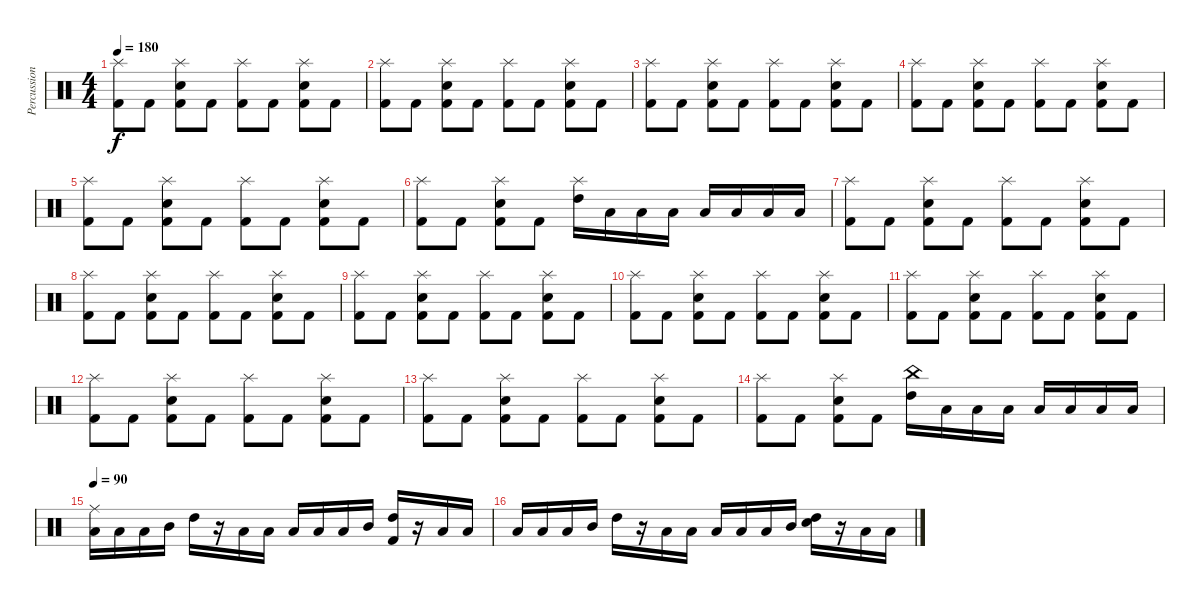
\track ("Percussion" "Percussion") {instrument percussion}
\staff {score}
\articulation defaults
\ts (4 4)
\tempo 180
\clef neutral
\ks c
("Splash (hit)" "Kick (hit) 2").8{dy f} "Kick (hit) 2".8 ("Splash (hit)" "Snare (hit) 2" "Kick (hit) 2").8 "Kick (hit) 2".8 ("Splash (hit)" "Kick (hit) 2").8 "Kick (hit) 2".8 ("Splash (hit)" "Snare (hit) 2" "Kick (hit) 2").8 "Kick (hit) 2".8 |
("Splash (hit)" "Kick (hit) 2").8 "Kick (hit) 2".8 ("Splash (hit)" "Snare (hit) 2" "Kick (hit) 2").8 "Kick (hit) 2".8 ("Splash (hit)" "Kick (hit) 2").8 "Kick (hit) 2".8 ("Splash (hit)" "Snare (hit) 2" "Kick (hit) 2").8 "Kick (hit) 2".8 |
("Splash (hit)" "Kick (hit) 2").8 "Kick (hit) 2".8 ("Splash (hit)" "Snare (hit) 2" "Kick (hit) 2").8 "Kick (hit) 2".8 ("Splash (hit)" "Kick (hit) 2").8 "Kick (hit) 2".8 ("Splash (hit)" "Snare (hit) 2" "Kick (hit) 2").8 "Kick (hit) 2".8 |
("Splash (hit)" "Kick (hit) 2").8 "Kick (hit) 2".8 ("Splash (hit)" "Snare (hit) 2" "Kick (hit) 2").8 "Kick (hit) 2".8 ("Splash (hit)" "Kick (hit) 2").8 "Kick (hit) 2".8 ("Splash (hit)" "Snare (hit) 2" "Kick (hit) 2").8 "Kick (hit) 2".8 |
("Splash (hit)" "Kick (hit) 2").8 "Kick (hit) 2".8 ("Splash (hit)" "Snare (hit) 2" "Kick (hit) 2").8 "Kick (hit) 2".8 ("Splash (hit)" "Kick (hit) 2").8 "Kick (hit) 2".8 ("Splash (hit)" "Snare (hit) 2" "Kick (hit) 2").8 "Kick (hit) 2".8 |
("Splash (hit)" "Kick (hit) 2").8 "Kick (hit) 2".8 ("Splash (hit)" "Snare (hit) 2" "Kick (hit) 2").8 "Kick (hit) 2".8 ("Splash (hit)" "High Tom (hit)").16 "Low Tom (hit)".16 "Low Tom (hit)".16 "Low Tom (hit)".16 "Low Tom (hit)".16 "Low Floor Tom (hit)".16 "Low Floor Tom (hit)".16 "Low Floor Tom (hit)".16 |
("Splash (hit)" "Kick (hit) 2").8 "Kick (hit) 2".8 ("Splash (hit)" "Snare (hit) 2" "Kick (hit) 2").8 "Kick (hit) 2".8 ("Splash (hit)" "Kick (hit) 2").8 "Kick (hit) 2".8 ("Splash (hit)" "Snare (hit) 2" "Kick (hit) 2").8 "Kick (hit) 2".8 |
("Splash (hit)" "Kick (hit) 2").8 "Kick (hit) 2".8 ("Splash (hit)" "Snare (hit) 2" "Kick (hit) 2").8 "Kick (hit) 2".8 ("Splash (hit)" "Kick (hit) 2").8 "Kick (hit) 2".8 ("Splash (hit)" "Snare (hit) 2" "Kick (hit) 2").8 "Kick (hit) 2".8 |
("Splash (hit)" "Kick (hit) 2").8 "Kick (hit) 2".8 ("Splash (hit)" "Snare (hit) 2" "Kick (hit) 2").8 "Kick (hit) 2".8 ("Splash (hit)" "Kick (hit) 2").8 "Kick (hit) 2".8 ("Splash (hit)" "Snare (hit) 2" "Kick (hit) 2").8 "Kick (hit) 2".8 |
("Splash (hit)" "Kick (hit) 2").8 "Kick (hit) 2".8 ("Splash (hit)" "Snare (hit) 2" "Kick (hit) 2").8 "Kick (hit) 2".8 ("Splash (hit)" "Kick (hit) 2").8 "Kick (hit) 2".8 ("Splash (hit)" "Snare (hit) 2" "Kick (hit) 2").8 "Kick (hit) 2".8 |
("Splash (hit)" "Kick (hit) 2").8 "Kick (hit) 2".8 ("Splash (hit)" "Snare (hit) 2" "Kick (hit) 2").8 "Kick (hit) 2".8 ("Splash (hit)" "Kick (hit) 2").8 "Kick (hit) 2".8 ("Splash (hit)" "Snare (hit) 2" "Kick (hit) 2").8 "Kick (hit) 2".8 |
("Splash (hit)" "Kick (hit) 2").8 "Kick (hit) 2".8 ("Splash (hit)" "Snare (hit) 2" "Kick (hit) 2").8 "Kick (hit) 2".8 ("Splash (hit)" "Kick (hit) 2").8 "Kick (hit) 2".8 ("Splash (hit)" "Snare (hit) 2" "Kick (hit) 2").8 "Kick (hit) 2".8 |
("Splash (hit)" "Kick (hit) 2").8 "Kick (hit) 2".8 ("Splash (hit)" "Snare (hit) 2" "Kick (hit) 2").8 "Kick (hit) 2".8 ("Splash (hit)" "Kick (hit) 2").8 "Kick (hit) 2".8 ("Splash (hit)" "Snare (hit) 2" "Kick (hit) 2").8 "Kick (hit) 2".8 |
("Splash (hit)" "Kick (hit) 2").8 "Kick (hit) 2".8 ("Splash (hit)" "Snare (hit) 2" "Kick (hit) 2").8 "Kick (hit) 2".8 ("China (hit)" "High Tom (hit)").16 "Low Tom (hit)".16 "Low Tom (hit)".16 "Low Tom (hit)".16 "Low Tom (hit)".16 "Low Floor Tom (hit)".16 "Low Floor Tom (hit)".16 "Low Floor Tom (hit)".16 |
\tempo 90
("Ride (middle)" "Low Floor Tom (hit)").16 "Low Tom (hit)".16 "Low Floor Tom (hit)".16 "Mid Tom (hit)".16 "High Tom (hit)".16 r.16 "Low Floor Tom (hit)".16 "Low Tom (hit)".16 "Low Floor Tom (hit)".16 "Low Tom (hit)".16 "Low Floor Tom (hit)".16 "Mid Tom (hit)".16 ("Kick (hit) 2" "High Tom (hit)").16 r.16 "Low Floor Tom (hit)".16 "Low Tom (hit)".16 |
"Low Floor Tom (hit)".16 "Low Tom (hit)".16 "Low Floor Tom (hit)".16 "Mid Tom (hit)".16 "High Tom (hit)".16 r.16 "Low Floor Tom (hit)".16 "Low Tom (hit)".16 "Low Floor Tom (hit)".16 "Low Tom (hit)".16 "Low Floor Tom (hit)".16 "Mid Tom (hit)".16 ("Hand Clap (hit)" "High Tom (hit)").16 r.16 "Low Floor Tom (hit)".16 "Low Tom (hit)".16
